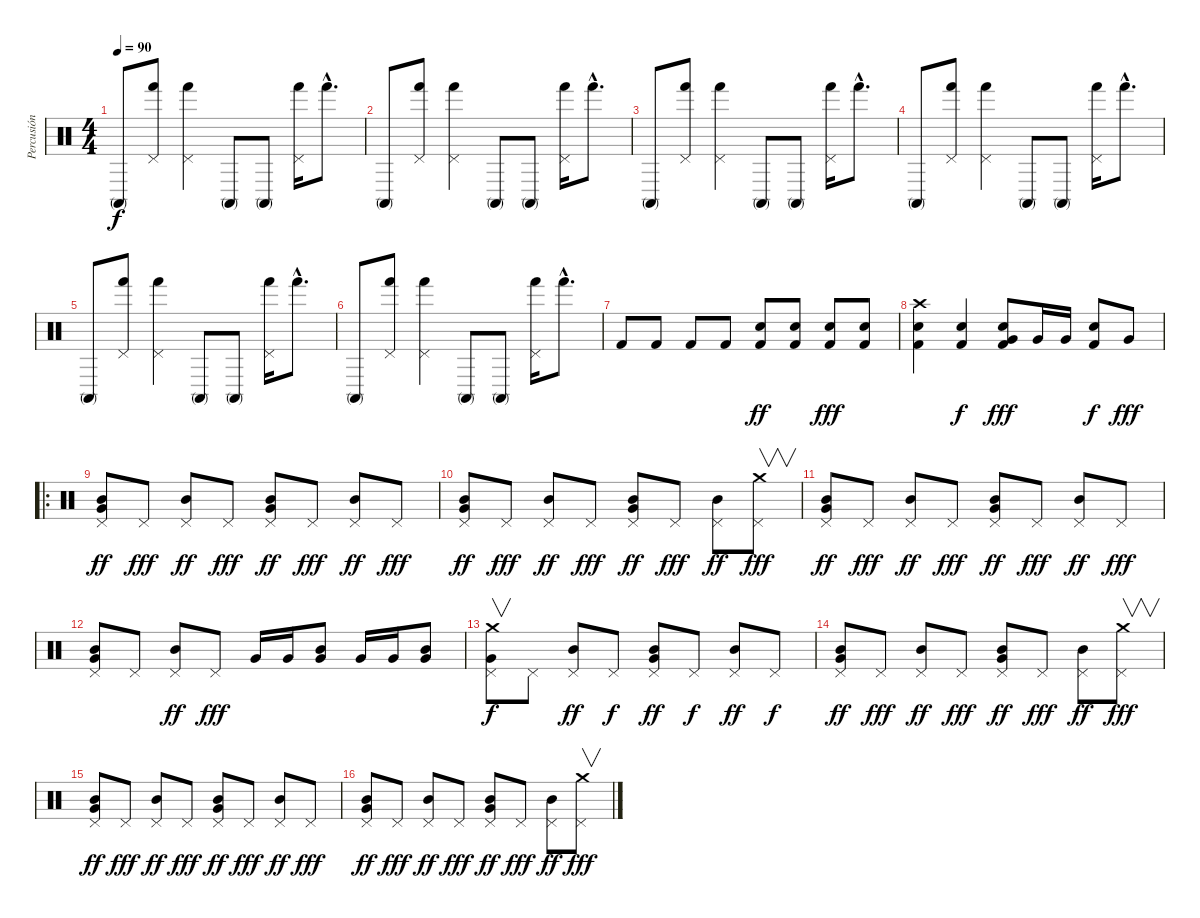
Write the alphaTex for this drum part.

\track ("Percusión" "Percusión") {instrument percussion}
\staff {score}
\articulation defaults
\ts (4 4)
\tempo 90
\clef neutral
\ks c "Conga high (mute)".8{dy f}
("Pedal Hi-Hat (hit)" "Hand (hit)").8 ("Pedal Hi-Hat (hit)" "Hand (hit)").4 "Conga high (mute)".8 "Conga high (mute)".8 ("Pedal Hi-Hat (hit)" "Hand (hit)").16 "Hand (hit)"{hac}.8{d} |
"Conga high (mute)".8 ("Pedal Hi-Hat (hit)" "Hand (hit)").8 ("Pedal Hi-Hat (hit)" "Hand (hit)").4 "Conga high (mute)".8 "Conga high (mute)".8 ("Pedal Hi-Hat (hit)" "Hand (hit)").16 "Hand (hit)"{hac}.8{d} |
"Conga high (mute)".8 ("Pedal Hi-Hat (hit)" "Hand (hit)").8 ("Pedal Hi-Hat (hit)" "Hand (hit)").4 "Conga high (mute)".8 "Conga high (mute)".8 ("Pedal Hi-Hat (hit)" "Hand (hit)").16 "Hand (hit)"{hac}.8{d} |
"Conga high (mute)".8 ("Pedal Hi-Hat (hit)" "Hand (hit)").8 ("Pedal Hi-Hat (hit)" "Hand (hit)").4 "Conga high (mute)".8 "Conga high (mute)".8 ("Pedal Hi-Hat (hit)" "Hand (hit)").16 "Hand (hit)"{hac}.8{d} |
"Conga high (mute)".8 ("Pedal Hi-Hat (hit)" "Hand (hit)").8 ("Pedal Hi-Hat (hit)" "Hand (hit)").4 "Conga high (mute)".8 "Conga high (mute)".8 ("Pedal Hi-Hat (hit)" "Hand (hit)").16 "Hand (hit)"{hac}.8{d} |
"Conga high (mute)".8 ("Pedal Hi-Hat (hit)" "Hand (hit)").8 ("Pedal Hi-Hat (hit)" "Hand (hit)").4 "Conga high (mute)".8 "Conga high (mute)".8 ("Pedal Hi-Hat (hit)" "Hand (hit)").16 "Hand (hit)"{hac}.8{d} |
"Kick (hit) 2".8 "Kick (hit) 2".8 "Kick (hit) 2".8 "Kick (hit) 2".8 ("Snare (hit) 2" "Kick (hit) 2").8{dy ff} ("Snare (hit) 2" "Kick (hit) 2").8 ("Snare (hit) 2" "Kick (hit) 2").8{dy fff} ("Snare (hit) 2" "Kick (hit) 2").8 |
("Crash high (hit)" "Snare (hit) 2" "Kick (hit) 2").4 ("Snare (hit) 2" "Kick (hit) 2").4{dy f} ("Very Low Tom (hit)" "Snare (hit) 2" "Kick (hit) 2").8{dy fff} "Very Low Tom (hit)".16 "Very Low Tom (hit)".16 ("Snare (hit) 2" "Kick (hit) 2").8{dy f} "Very Low Tom (hit)".8{dy fff} |
\ro
("Pedal Hi-Hat (hit)" "Very Low Tom (hit)" "Mid Tom (hit)").8{dy ff} "Pedal Hi-Hat (hit)".8{dy fff} ("Pedal Hi-Hat (hit)" "Mid Tom (hit)").8{dy ff} "Pedal Hi-Hat (hit)".8{dy fff} ("Pedal Hi-Hat (hit)" "Very Low Tom (hit)" "Mid Tom (hit)").8{dy ff} "Pedal Hi-Hat (hit)".8{dy fff} ("Pedal Hi-Hat (hit)" "Mid Tom (hit)").8{dy ff} "Pedal Hi-Hat (hit)".8{dy fff} |
("Pedal Hi-Hat (hit)" "Very Low Tom (hit)" "Mid Tom (hit)").8{dy ff} "Pedal Hi-Hat (hit)".8{dy fff} ("Pedal Hi-Hat (hit)" "Mid Tom (hit)").8{dy ff} "Pedal Hi-Hat (hit)".8{dy fff} ("Pedal Hi-Hat (hit)" "Very Low Tom (hit)" "Mid Tom (hit)").8{dy ff} "Pedal Hi-Hat (hit)".8{dy fff} ("Pedal Hi-Hat (hit)" "Mid Tom (hit)").8{dy ff} ("Pedal Hi-Hat (hit)" "Crash medium (hit)").8{v dy fff} |
("Pedal Hi-Hat (hit)" "Very Low Tom (hit)" "Mid Tom (hit)").8{dy ff} "Pedal Hi-Hat (hit)".8{dy fff} ("Pedal Hi-Hat (hit)" "Mid Tom (hit)").8{dy ff} "Pedal Hi-Hat (hit)".8{dy fff} ("Pedal Hi-Hat (hit)" "Very Low Tom (hit)" "Mid Tom (hit)").8{dy ff} "Pedal Hi-Hat (hit)".8{dy fff} ("Pedal Hi-Hat (hit)" "Mid Tom (hit)").8{dy ff} "Pedal Hi-Hat (hit)".8{dy fff} |
("Pedal Hi-Hat (hit)" "Very Low Tom (hit)" "Mid Tom (hit)").8 "Pedal Hi-Hat (hit)".8 ("Pedal Hi-Hat (hit)" "Mid Tom (hit)").8{dy ff} "Pedal Hi-Hat (hit)".8{dy fff} "Very Low Tom (hit)".16 "Very Low Tom (hit)".16 ("Very Low Tom (hit)" "Mid Tom (hit)").8 "Very Low Tom (hit)".16 "Very Low Tom (hit)".16 ("Very Low Tom (hit)" "Mid Tom (hit)").8 |
("Pedal Hi-Hat (hit)" "Very Low Tom (hit)" "Crash medium (hit)").8{v dy f} "Pedal Hi-Hat (hit)".8 ("Pedal Hi-Hat (hit)" "Mid Tom (hit)").8{dy ff} "Pedal Hi-Hat (hit)".8{dy f} ("Pedal Hi-Hat (hit)" "Very Low Tom (hit)" "Mid Tom (hit)").8{dy ff} "Pedal Hi-Hat (hit)".8{dy f} ("Pedal Hi-Hat (hit)" "Mid Tom (hit)").8{dy ff} "Pedal Hi-Hat (hit)".8{dy f} |
("Pedal Hi-Hat (hit)" "Very Low Tom (hit)" "Mid Tom (hit)").8{dy ff} "Pedal Hi-Hat (hit)".8{dy fff} ("Pedal Hi-Hat (hit)" "Mid Tom (hit)").8{dy ff} "Pedal Hi-Hat (hit)".8{dy fff} ("Pedal Hi-Hat (hit)" "Very Low Tom (hit)" "Mid Tom (hit)").8{dy ff} "Pedal Hi-Hat (hit)".8{dy fff} ("Pedal Hi-Hat (hit)" "Mid Tom (hit)").8{dy ff} ("Pedal Hi-Hat (hit)" "Crash medium (hit)").8{v dy fff} |
("Pedal Hi-Hat (hit)" "Very Low Tom (hit)" "Mid Tom (hit)").8{dy ff} "Pedal Hi-Hat (hit)".8{dy fff} ("Pedal Hi-Hat (hit)" "Mid Tom (hit)").8{dy ff} "Pedal Hi-Hat (hit)".8{dy fff} ("Pedal Hi-Hat (hit)" "Very Low Tom (hit)" "Mid Tom (hit)").8{dy ff} "Pedal Hi-Hat (hit)".8{dy fff} ("Pedal Hi-Hat (hit)" "Mid Tom (hit)").8{dy ff} "Pedal Hi-Hat (hit)".8{dy fff} |
("Pedal Hi-Hat (hit)" "Very Low Tom (hit)" "Mid Tom (hit)").8{dy ff} "Pedal Hi-Hat (hit)".8{dy fff} ("Pedal Hi-Hat (hit)" "Mid Tom (hit)").8{dy ff} "Pedal Hi-Hat (hit)".8{dy fff} ("Pedal Hi-Hat (hit)" "Very Low Tom (hit)" "Mid Tom (hit)").8{dy ff} "Pedal Hi-Hat (hit)".8{dy fff} ("Pedal Hi-Hat (hit)" "Mid Tom (hit)").8{dy ff} ("Pedal Hi-Hat (hit)" "Crash medium (hit)").8{v dy fff}
